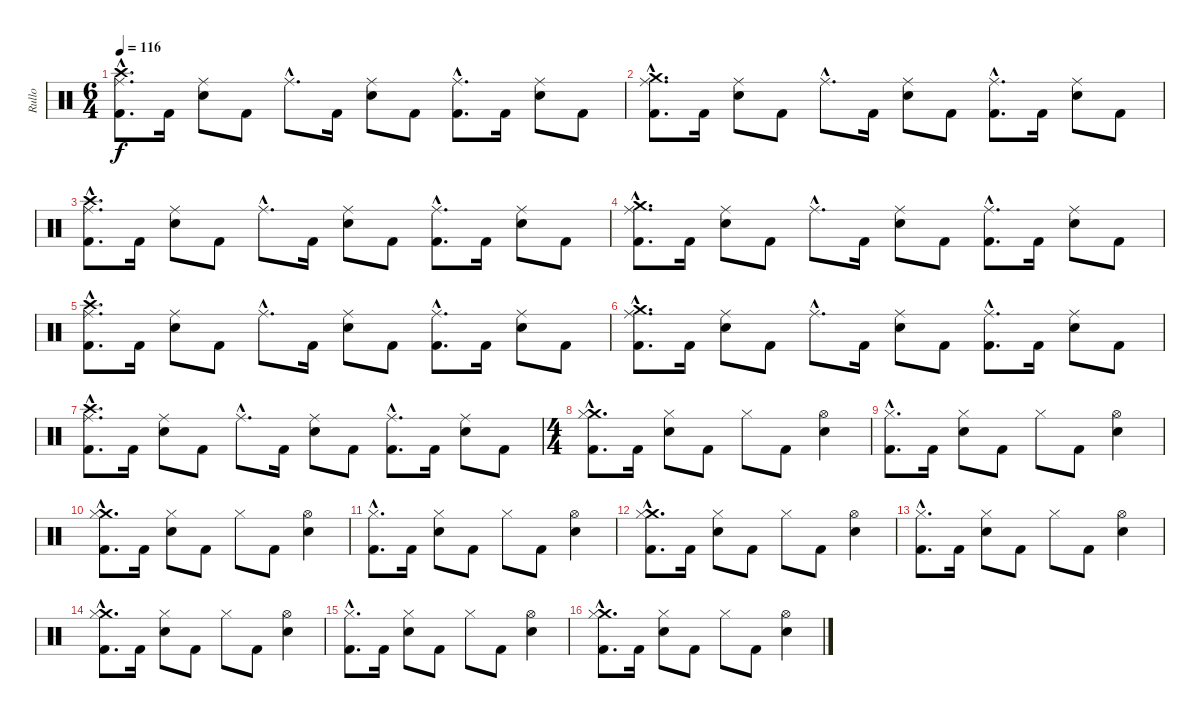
\track ("Rullo" "Rullo") {instrument percussion}
\staff {score}
\articulation defaults
\ts (6 4)
\tempo 116
\clef neutral
\ks c
("Crash high (hit)"{hac} "Ride (middle)"{hac} "Kick (hit) 2"{hac}).8{d dy f} "Kick (hit) 2".16 ("Ride (middle)" "Electric Snare (hit)").8 "Kick (hit) 2".8 "Ride (middle)"{hac}.8{d} "Kick (hit) 2".16 ("Ride (middle)" "Electric Snare (hit)").8 "Kick (hit) 2".8 ("Ride (middle)"{hac} "Kick (hit) 2"{hac}).8{d} "Kick (hit) 2".16 ("Ride (middle)" "Electric Snare (hit)").8 "Kick (hit) 2".8 |
("Crash medium (hit)"{hac} "Ride (middle)"{hac} "Kick (hit) 2"{hac}).8{d} "Kick (hit) 2".16 ("Ride (middle)" "Electric Snare (hit)").8 "Kick (hit) 2".8 "Ride (middle)"{hac}.8{d} "Kick (hit) 2".16 ("Ride (middle)" "Electric Snare (hit)").8 "Kick (hit) 2".8 ("Ride (middle)"{hac} "Kick (hit) 2"{hac}).8{d} "Kick (hit) 2".16 ("Ride (middle)" "Electric Snare (hit)").8 "Kick (hit) 2".8 |
("Crash high (hit)"{hac} "Ride (middle)"{hac} "Kick (hit) 2"{hac}).8{d} "Kick (hit) 2".16 ("Ride (middle)" "Electric Snare (hit)").8 "Kick (hit) 2".8 "Ride (middle)"{hac}.8{d} "Kick (hit) 2".16 ("Ride (middle)" "Electric Snare (hit)").8 "Kick (hit) 2".8 ("Ride (middle)"{hac} "Kick (hit) 2"{hac}).8{d} "Kick (hit) 2".16 ("Ride (middle)" "Electric Snare (hit)").8 "Kick (hit) 2".8 |
("Crash medium (hit)"{hac} "Ride (middle)"{hac} "Kick (hit) 2"{hac}).8{d} "Kick (hit) 2".16 ("Ride (middle)" "Electric Snare (hit)").8 "Kick (hit) 2".8 "Ride (middle)"{hac}.8{d} "Kick (hit) 2".16 ("Ride (middle)" "Electric Snare (hit)").8 "Kick (hit) 2".8 ("Ride (middle)"{hac} "Kick (hit) 2"{hac}).8{d} "Kick (hit) 2".16 ("Ride (middle)" "Electric Snare (hit)").8 "Kick (hit) 2".8 |
("Crash high (hit)"{hac} "Ride (middle)"{hac} "Kick (hit) 2"{hac}).8{d} "Kick (hit) 2".16 ("Ride (middle)" "Electric Snare (hit)").8 "Kick (hit) 2".8 "Ride (middle)"{hac}.8{d} "Kick (hit) 2".16 ("Ride (middle)" "Electric Snare (hit)").8 "Kick (hit) 2".8 ("Ride (middle)"{hac} "Kick (hit) 2"{hac}).8{d} "Kick (hit) 2".16 ("Ride (middle)" "Electric Snare (hit)").8 "Kick (hit) 2".8 |
("Crash medium (hit)"{hac} "Ride (middle)"{hac} "Kick (hit) 2"{hac}).8{d} "Kick (hit) 2".16 ("Ride (middle)" "Electric Snare (hit)").8 "Kick (hit) 2".8 "Ride (middle)"{hac}.8{d} "Kick (hit) 2".16 ("Ride (middle)" "Electric Snare (hit)").8 "Kick (hit) 2".8 ("Ride (middle)"{hac} "Kick (hit) 2"{hac}).8{d} "Kick (hit) 2".16 ("Ride (middle)" "Electric Snare (hit)").8 "Kick (hit) 2".8 |
("Crash high (hit)"{hac} "Ride (middle)"{hac} "Kick (hit) 2"{hac}).8{d} "Kick (hit) 2".16 ("Ride (middle)" "Electric Snare (hit)").8 "Kick (hit) 2".8 "Ride (middle)"{hac}.8{d} "Kick (hit) 2".16 ("Ride (middle)" "Electric Snare (hit)").8 "Kick (hit) 2".8 ("Ride (middle)"{hac} "Kick (hit) 2"{hac}).8{d} "Kick (hit) 2".16 ("Ride (middle)" "Electric Snare (hit)").8 "Kick (hit) 2".8 |
\ts (4 4)
("Crash medium (hit)"{hac} "Hi-Hat (closed)"{hac} "Kick (hit) 2"{hac}).8{d} "Kick (hit) 2".16 ("Hi-Hat (closed)" "Electric Snare (hit)").8 "Kick (hit) 2".8 "Hi-Hat (closed)".8 "Kick (hit) 2".8 ("Hi-Hat (open)" "Electric Snare (hit)").4 |
("Hi-Hat (closed)"{hac} "Kick (hit) 2"{hac}).8{d} "Kick (hit) 2".16 ("Hi-Hat (closed)" "Electric Snare (hit)").8 "Kick (hit) 2".8 "Hi-Hat (closed)".8 "Kick (hit) 2".8 ("Hi-Hat (open)" "Electric Snare (hit)").4 |
("Crash medium (hit)"{hac} "Hi-Hat (closed)"{hac} "Kick (hit) 2"{hac}).8{d} "Kick (hit) 2".16 ("Hi-Hat (closed)" "Electric Snare (hit)").8 "Kick (hit) 2".8 "Hi-Hat (closed)".8 "Kick (hit) 2".8 ("Hi-Hat (open)" "Electric Snare (hit)").4 |
("Hi-Hat (closed)"{hac} "Kick (hit) 2"{hac}).8{d} "Kick (hit) 2".16 ("Hi-Hat (closed)" "Electric Snare (hit)").8 "Kick (hit) 2".8 "Hi-Hat (closed)".8 "Kick (hit) 2".8 ("Hi-Hat (open)" "Electric Snare (hit)").4 |
("Crash medium (hit)"{hac} "Hi-Hat (closed)"{hac} "Kick (hit) 2"{hac}).8{d} "Kick (hit) 2".16 ("Hi-Hat (closed)" "Electric Snare (hit)").8 "Kick (hit) 2".8 "Hi-Hat (closed)".8 "Kick (hit) 2".8 ("Hi-Hat (open)" "Electric Snare (hit)").4 |
("Hi-Hat (closed)"{hac} "Kick (hit) 2"{hac}).8{d} "Kick (hit) 2".16 ("Hi-Hat (closed)" "Electric Snare (hit)").8 "Kick (hit) 2".8 "Hi-Hat (closed)".8 "Kick (hit) 2".8 ("Hi-Hat (open)" "Electric Snare (hit)").4 |
("Crash medium (hit)"{hac} "Hi-Hat (closed)"{hac} "Kick (hit) 2"{hac}).8{d} "Kick (hit) 2".16 ("Hi-Hat (closed)" "Electric Snare (hit)").8 "Kick (hit) 2".8 "Hi-Hat (closed)".8 "Kick (hit) 2".8 ("Hi-Hat (open)" "Electric Snare (hit)").4 |
("Hi-Hat (closed)"{hac} "Kick (hit) 2"{hac}).8{d} "Kick (hit) 2".16 ("Hi-Hat (closed)" "Electric Snare (hit)").8 "Kick (hit) 2".8 "Hi-Hat (closed)".8 "Kick (hit) 2".8 ("Hi-Hat (open)" "Electric Snare (hit)").4 |
("Crash medium (hit)"{hac} "Hi-Hat (closed)"{hac} "Kick (hit) 2"{hac}).8{d} "Kick (hit) 2".16 ("Hi-Hat (closed)" "Electric Snare (hit)").8 "Kick (hit) 2".8 "Hi-Hat (closed)".8 "Kick (hit) 2".8 ("Hi-Hat (open)" "Electric Snare (hit)").4
